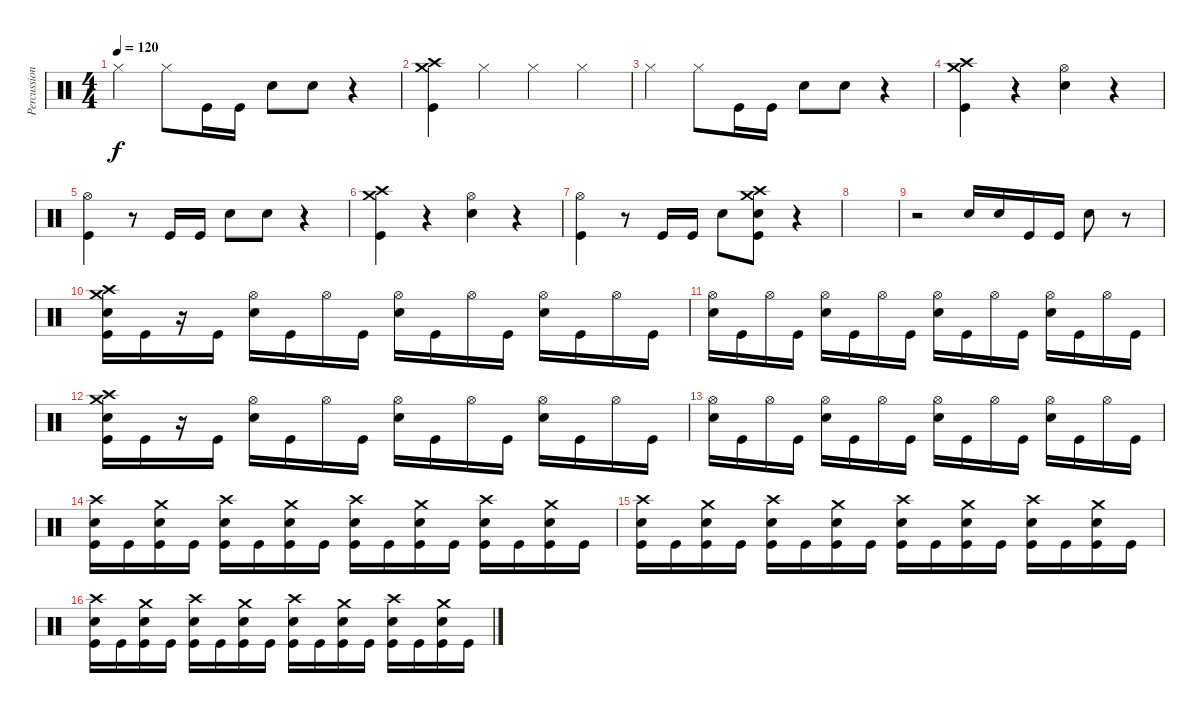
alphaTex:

\track ("Percussion" "Percussion") {instrument percussion}
\staff {score}
\articulation defaults
\ts (4 4)
\tempo 120
\clef neutral
\ks c "Hi-Hat (closed)".4{dy f} "Hi-Hat (closed)".8 "Kick (hit)".16 "Kick (hit)".16 "Snare (hit) 2".8 "Snare (hit) 2".8
r.4 |
("Crash medium (hit)" "Crash high (hit)" "Kick (hit)").4 "Hi-Hat (closed)".4 "Hi-Hat (closed)".4 "Hi-Hat (closed)".4 |
"Hi-Hat (closed)".4 "Hi-Hat (closed)".8 "Kick (hit)".16 "Kick (hit)".16 "Snare (hit) 2".8 "Snare (hit) 2".8 r.4 |
("Crash medium (hit)" "Crash high (hit)" "Kick (hit)").4 r.4 ("Hi-Hat (open)" "Snare (hit) 2").4 r.4 |
("Hi-Hat (open)" "Kick (hit)").4 r.8 "Kick (hit)".16 "Kick (hit)".16 "Snare (hit) 2".8 "Snare (hit) 2".8 r.4 |
("Crash medium (hit)" "Crash high (hit)" "Kick (hit)").4 r.4 ("Hi-Hat (open)" "Snare (hit) 2").4 r.4 |
("Hi-Hat (open)" "Kick (hit)").4 r.8 "Kick (hit)".16 "Kick (hit)".16 "Snare (hit) 2".8 ("Crash medium (hit)" "Crash high (hit)" "Snare (hit) 2" "Kick (hit)").8 r.4 |
|
r.2 "Snare (hit) 2".16 "Snare (hit) 2".16 "Kick (hit)".16 "Kick (hit)".16 "Snare (hit) 2".8 r.8 |
("Crash high (hit)" "Crash medium (hit)" "Snare (hit) 2" "Kick (hit)").16 "Kick (hit)".16 r.16 "Kick (hit)".16 ("Hi-Hat (open)" "Snare (hit) 2").16 "Kick (hit)".16 "Hi-Hat (open)".16 "Kick (hit)".16 ("Hi-Hat (open)" "Snare (hit) 2").16 "Kick (hit)".16 "Hi-Hat (open)".16 "Kick (hit)".16 ("Hi-Hat (open)" "Snare (hit) 2").16 "Kick (hit)".16 "Hi-Hat (open)".16 "Kick (hit)".16 |
("Hi-Hat (open)" "Snare (hit) 2").16 "Kick (hit)".16 "Hi-Hat (open)".16 "Kick (hit)".16 ("Hi-Hat (open)" "Snare (hit) 2").16 "Kick (hit)".16 "Hi-Hat (open)".16 "Kick (hit)".16 ("Hi-Hat (open)" "Snare (hit) 2").16 "Kick (hit)".16 "Hi-Hat (open)".16 "Kick (hit)".16 ("Hi-Hat (open)" "Snare (hit) 2").16 "Kick (hit)".16 "Hi-Hat (open)".16 "Kick (hit)".16 |
("Crash high (hit)" "Crash medium (hit)" "Snare (hit) 2" "Kick (hit)").16 "Kick (hit)".16 r.16 "Kick (hit)".16 ("Hi-Hat (open)" "Snare (hit) 2").16 "Kick (hit)".16 "Hi-Hat (open)".16 "Kick (hit)".16 ("Hi-Hat (open)" "Snare (hit) 2").16 "Kick (hit)".16 "Hi-Hat (open)".16 "Kick (hit)".16 ("Hi-Hat (open)" "Snare (hit) 2").16 "Kick (hit)".16 "Hi-Hat (open)".16 "Kick (hit)".16 |
("Hi-Hat (open)" "Snare (hit) 2").16 "Kick (hit)".16 "Hi-Hat (open)".16 "Kick (hit)".16 ("Hi-Hat (open)" "Snare (hit) 2").16 "Kick (hit)".16 "Hi-Hat (open)".16 "Kick (hit)".16 ("Hi-Hat (open)" "Snare (hit) 2").16 "Kick (hit)".16 "Hi-Hat (open)".16 "Kick (hit)".16 ("Hi-Hat (open)" "Snare (hit) 2").16 "Kick (hit)".16 "Hi-Hat (open)".16 "Kick (hit)".16 |
("Crash high (hit)" "Snare (hit) 2" "Kick (hit)").16 "Kick (hit)".16 ("Crash medium (hit)" "Snare (hit) 2" "Kick (hit)").16 "Kick (hit)".16 ("Crash high (hit)" "Snare (hit) 2" "Kick (hit)").16 "Kick (hit)".16 ("Crash medium (hit)" "Snare (hit) 2" "Kick (hit)").16 "Kick (hit)".16 ("Crash high (hit)" "Snare (hit) 2" "Kick (hit)").16 "Kick (hit)".16 ("Crash medium (hit)" "Snare (hit) 2" "Kick (hit)").16 "Kick (hit)".16 ("Crash high (hit)" "Snare (hit) 2" "Kick (hit)").16 "Kick (hit)".16 ("Crash medium (hit)" "Snare (hit) 2" "Kick (hit)").16 "Kick (hit)".16 |
("Crash high (hit)" "Snare (hit) 2" "Kick (hit)").16 "Kick (hit)".16 ("Crash medium (hit)" "Snare (hit) 2" "Kick (hit)").16 "Kick (hit)".16 ("Crash high (hit)" "Snare (hit) 2" "Kick (hit)").16 "Kick (hit)".16 ("Crash medium (hit)" "Snare (hit) 2" "Kick (hit)").16 "Kick (hit)".16 ("Crash high (hit)" "Snare (hit) 2" "Kick (hit)").16 "Kick (hit)".16 ("Crash medium (hit)" "Snare (hit) 2" "Kick (hit)").16 "Kick (hit)".16 ("Crash high (hit)" "Snare (hit) 2" "Kick (hit)").16 "Kick (hit)".16 ("Crash medium (hit)" "Snare (hit) 2" "Kick (hit)").16 "Kick (hit)".16 |
("Crash high (hit)" "Snare (hit) 2" "Kick (hit)").16 "Kick (hit)".16 ("Crash medium (hit)" "Snare (hit) 2" "Kick (hit)").16 "Kick (hit)".16 ("Crash high (hit)" "Snare (hit) 2" "Kick (hit)").16 "Kick (hit)".16 ("Crash medium (hit)" "Snare (hit) 2" "Kick (hit)").16 "Kick (hit)".16 ("Crash high (hit)" "Snare (hit) 2" "Kick (hit)").16 "Kick (hit)".16 ("Crash medium (hit)" "Snare (hit) 2" "Kick (hit)").16 "Kick (hit)".16 ("Crash high (hit)" "Snare (hit) 2" "Kick (hit)").16 "Kick (hit)".16 ("Crash medium (hit)" "Snare (hit) 2" "Kick (hit)").16 "Kick (hit)".16
